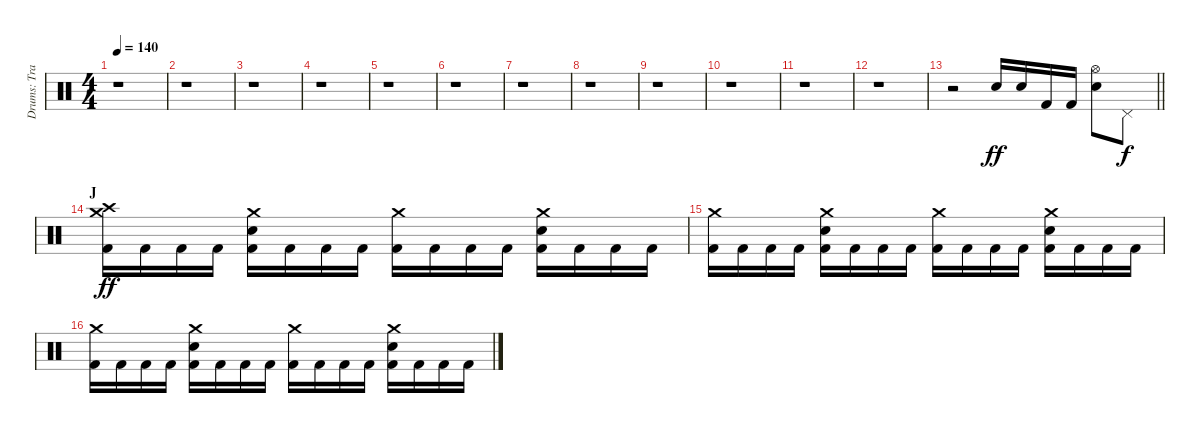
\track ("Drums: Travis Clarke" "Drums: Tra") {instrument percussion}
\staff {score}
\articulation defaults
\ts (4 4)
\tempo 140
\clef neutral
\ks c
r.1{dy ff} |
r.1 |
r.1 |
r.1 |
r.1 |
r.1 |
r.1 |
r.1 |
r.1 |
r.1 |
r.1 |
r.1 |
\barLineRight lightlight
r.2 "Snare (hit) 2".16 "Snare (hit) 2".16 "Kick (hit) 2".16 "Kick (hit) 2".16 ("Snare (hit) 2" "Hi-Hat (open)").8 "Pedal Hi-Hat (hit)".8{dy f} |
\section ("" "J")
("Kick (hit) 2" "Crash high (hit)" "Crash medium (hit)").16{dy ff} "Kick (hit) 2".16 "Kick (hit) 2".16 "Kick (hit) 2".16 ("Kick (hit) 2" "Snare (hit) 2" "Crash medium (hit)").16 "Kick (hit) 2".16 "Kick (hit) 2".16 "Kick (hit) 2".16 ("Kick (hit) 2" "Crash medium (hit)").16 "Kick (hit) 2".16 "Kick (hit) 2".16 "Kick (hit) 2".16 ("Kick (hit) 2" "Snare (hit) 2" "Crash medium (hit)").16 "Kick (hit) 2".16 "Kick (hit) 2".16 "Kick (hit) 2".16 |
("Kick (hit) 2" "Crash medium (hit)").16 "Kick (hit) 2".16 "Kick (hit) 2".16 "Kick (hit) 2".16 ("Kick (hit) 2" "Snare (hit) 2" "Crash medium (hit)").16 "Kick (hit) 2".16 "Kick (hit) 2".16 "Kick (hit) 2".16 ("Kick (hit) 2" "Crash medium (hit)").16 "Kick (hit) 2".16 "Kick (hit) 2".16 "Kick (hit) 2".16 ("Kick (hit) 2" "Snare (hit) 2" "Crash medium (hit)").16 "Kick (hit) 2".16 "Kick (hit) 2".16 "Kick (hit) 2".16 |
("Kick (hit) 2" "Crash medium (hit)").16 "Kick (hit) 2".16 "Kick (hit) 2".16 "Kick (hit) 2".16 ("Kick (hit) 2" "Snare (hit) 2" "Crash medium (hit)").16 "Kick (hit) 2".16 "Kick (hit) 2".16 "Kick (hit) 2".16 ("Kick (hit) 2" "Crash medium (hit)").16 "Kick (hit) 2".16 "Kick (hit) 2".16 "Kick (hit) 2".16 ("Kick (hit) 2" "Snare (hit) 2" "Crash medium (hit)").16 "Kick (hit) 2".16 "Kick (hit) 2".16 "Kick (hit) 2".16
